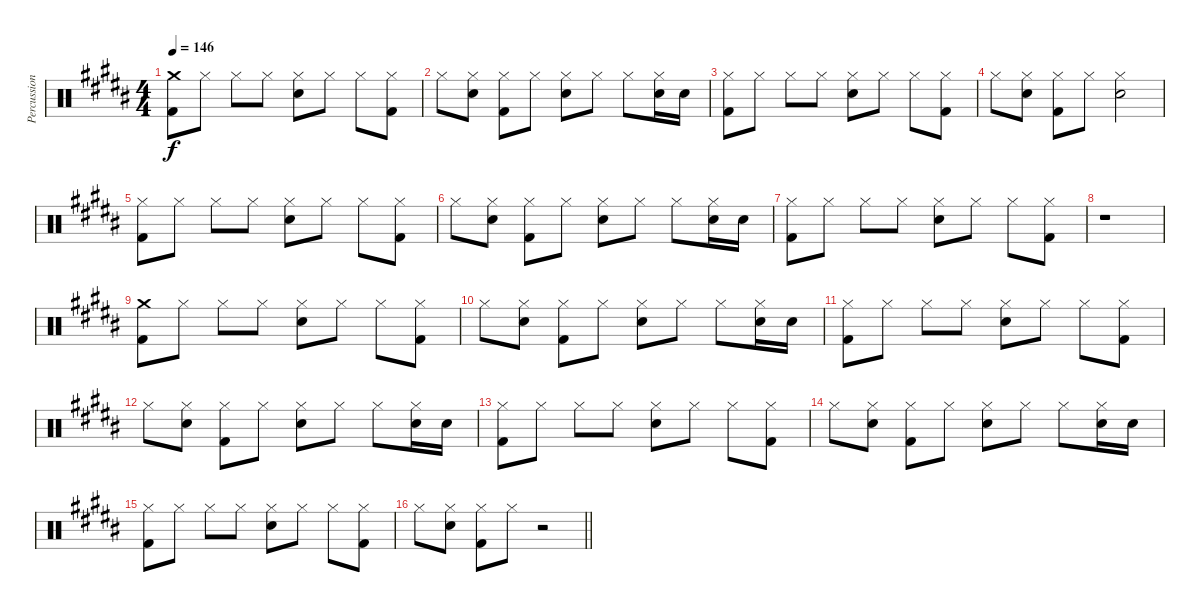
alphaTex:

\track ("Percussion" "Percussion") {instrument percussion}
\staff {score}
\articulation defaults
\ts (4 4)
\tempo 146
\clef neutral
\ks b
("Crash medium (hit)" "Kick (hit) 2").8{dy f} "Hi-Hat (closed)".8 "Hi-Hat (closed)".8 "Hi-Hat (closed)".8 ("Hi-Hat (closed)" "Snare (hit) 2").8 "Hi-Hat (closed)".8 "Hi-Hat (closed)".8 ("Hi-Hat (closed)" "Kick (hit) 2").8 |
"Hi-Hat (closed)".8 ("Hi-Hat (closed)" "Snare (hit) 2").8 ("Hi-Hat (closed)" "Kick (hit) 2").8 "Hi-Hat (closed)".8 ("Hi-Hat (closed)" "Snare (hit) 2").8 "Hi-Hat (closed)".8 "Hi-Hat (closed)".8 ("Hi-Hat (closed)" "Snare (hit) 2").16 "Snare (hit) 2".16 |
("Hi-Hat (closed)" "Kick (hit) 2").8 "Hi-Hat (closed)".8 "Hi-Hat (closed)".8 "Hi-Hat (closed)".8 ("Hi-Hat (closed)" "Snare (hit) 2").8 "Hi-Hat (closed)".8 "Hi-Hat (closed)".8 ("Hi-Hat (closed)" "Kick (hit) 2").8 |
"Hi-Hat (closed)".8 ("Hi-Hat (closed)" "Snare (hit) 2").8 ("Hi-Hat (closed)" "Kick (hit) 2").8 "Hi-Hat (closed)".8 ("Hi-Hat (closed)" "Snare (hit) 2").2 |
("Hi-Hat (closed)" "Kick (hit) 2").8 "Hi-Hat (closed)".8 "Hi-Hat (closed)".8 "Hi-Hat (closed)".8 ("Hi-Hat (closed)" "Snare (hit) 2").8 "Hi-Hat (closed)".8 "Hi-Hat (closed)".8 ("Hi-Hat (closed)" "Kick (hit) 2").8 |
"Hi-Hat (closed)".8 ("Hi-Hat (closed)" "Snare (hit) 2").8 ("Hi-Hat (closed)" "Kick (hit) 2").8 "Hi-Hat (closed)".8 ("Hi-Hat (closed)" "Snare (hit) 2").8 "Hi-Hat (closed)".8 "Hi-Hat (closed)".8 ("Hi-Hat (closed)" "Snare (hit) 2").16 "Snare (hit) 2".16 |
("Hi-Hat (closed)" "Kick (hit) 2").8 "Hi-Hat (closed)".8 "Hi-Hat (closed)".8 "Hi-Hat (closed)".8 ("Hi-Hat (closed)" "Snare (hit) 2").8 "Hi-Hat (closed)".8 "Hi-Hat (closed)".8 ("Hi-Hat (closed)" "Kick (hit) 2").8 |
r.1 |
("Crash medium (hit)" "Kick (hit) 2").8 "Hi-Hat (closed)".8 "Hi-Hat (closed)".8 "Hi-Hat (closed)".8 ("Hi-Hat (closed)" "Snare (hit) 2").8 "Hi-Hat (closed)".8 "Hi-Hat (closed)".8 ("Hi-Hat (closed)" "Kick (hit) 2").8 |
"Hi-Hat (closed)".8 ("Hi-Hat (closed)" "Snare (hit) 2").8 ("Hi-Hat (closed)" "Kick (hit) 2").8 "Hi-Hat (closed)".8 ("Hi-Hat (closed)" "Snare (hit) 2").8 "Hi-Hat (closed)".8 "Hi-Hat (closed)".8 ("Hi-Hat (closed)" "Snare (hit) 2").16 "Snare (hit) 2".16 |
("Hi-Hat (closed)" "Kick (hit) 2").8 "Hi-Hat (closed)".8 "Hi-Hat (closed)".8 "Hi-Hat (closed)".8 ("Hi-Hat (closed)" "Snare (hit) 2").8 "Hi-Hat (closed)".8 "Hi-Hat (closed)".8 ("Hi-Hat (closed)" "Kick (hit) 2").8 |
"Hi-Hat (closed)".8 ("Hi-Hat (closed)" "Snare (hit) 2").8 ("Hi-Hat (closed)" "Kick (hit) 2").8 "Hi-Hat (closed)".8 ("Hi-Hat (closed)" "Snare (hit) 2").8 "Hi-Hat (closed)".8 "Hi-Hat (closed)".8 ("Hi-Hat (closed)" "Snare (hit) 2").16 "Snare (hit) 2".16 |
("Hi-Hat (closed)" "Kick (hit) 2").8 "Hi-Hat (closed)".8 "Hi-Hat (closed)".8 "Hi-Hat (closed)".8 ("Hi-Hat (closed)" "Snare (hit) 2").8 "Hi-Hat (closed)".8 "Hi-Hat (closed)".8 ("Hi-Hat (closed)" "Kick (hit) 2").8 |
"Hi-Hat (closed)".8 ("Hi-Hat (closed)" "Snare (hit) 2").8 ("Hi-Hat (closed)" "Kick (hit) 2").8 "Hi-Hat (closed)".8 ("Hi-Hat (closed)" "Snare (hit) 2").8 "Hi-Hat (closed)".8 "Hi-Hat (closed)".8 ("Hi-Hat (closed)" "Snare (hit) 2").16 "Snare (hit) 2".16 |
("Hi-Hat (closed)" "Kick (hit) 2").8 "Hi-Hat (closed)".8 "Hi-Hat (closed)".8 "Hi-Hat (closed)".8 ("Hi-Hat (closed)" "Snare (hit) 2").8 "Hi-Hat (closed)".8 "Hi-Hat (closed)".8 ("Hi-Hat (closed)" "Kick (hit) 2").8 |
\barLineRight lightlight "Hi-Hat (closed)".8
("Hi-Hat (closed)" "Snare (hit) 2").8 ("Hi-Hat (closed)" "Kick (hit) 2").8 "Hi-Hat (closed)".8 r.2
